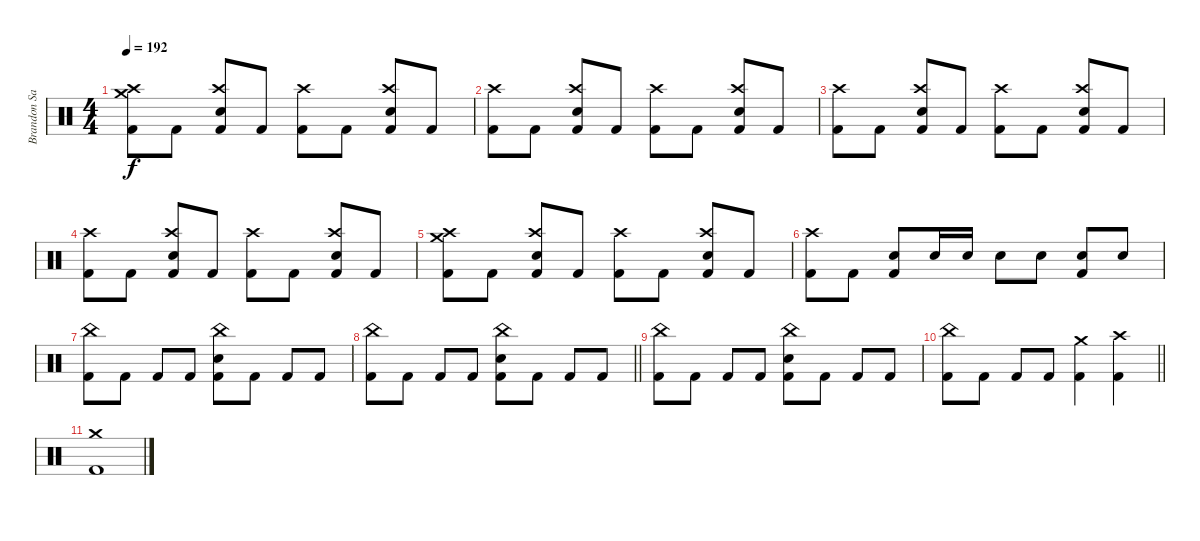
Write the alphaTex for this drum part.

\track ("Brandon Saller" "Brandon Sa") {instrument percussion}
\staff {score}
\articulation defaults
\ts (4 4)
\tempo 192
\clef neutral
\ks aminor
("Kick (hit) 2" "Crash medium (hit)" "Crash high (hit)").8{dy f} "Kick (hit) 2".8 ("Kick (hit) 2" "Snare (hit) 2" "Crash high (hit)").8 "Kick (hit) 2".8 ("Kick (hit) 2" "Crash high (hit)").8 "Kick (hit) 2".8 ("Kick (hit) 2" "Snare (hit) 2" "Crash high (hit)").8 "Kick (hit) 2".8 |
("Kick (hit) 2" "Crash high (hit)").8 "Kick (hit) 2".8 ("Kick (hit) 2" "Snare (hit) 2" "Crash high (hit)").8 "Kick (hit) 2".8 ("Kick (hit) 2" "Crash high (hit)").8 "Kick (hit) 2".8 ("Kick (hit) 2" "Snare (hit) 2" "Crash high (hit)").8 "Kick (hit) 2".8 |
("Kick (hit) 2" "Crash high (hit)").8 "Kick (hit) 2".8 ("Kick (hit) 2" "Snare (hit) 2" "Crash high (hit)").8 "Kick (hit) 2".8 ("Kick (hit) 2" "Crash high (hit)").8 "Kick (hit) 2".8 ("Kick (hit) 2" "Snare (hit) 2" "Crash high (hit)").8 "Kick (hit) 2".8 |
("Kick (hit) 2" "Crash high (hit)").8 "Kick (hit) 2".8 ("Kick (hit) 2" "Snare (hit) 2" "Crash high (hit)").8 "Kick (hit) 2".8 ("Kick (hit) 2" "Crash high (hit)").8 "Kick (hit) 2".8 ("Kick (hit) 2" "Snare (hit) 2" "Crash high (hit)").8 "Kick (hit) 2".8 |
("Kick (hit) 2" "Crash medium (hit)" "Crash high (hit)").8 "Kick (hit) 2".8 ("Kick (hit) 2" "Snare (hit) 2" "Crash high (hit)").8 "Kick (hit) 2".8 ("Kick (hit) 2" "Crash high (hit)").8 "Kick (hit) 2".8 ("Kick (hit) 2" "Snare (hit) 2" "Crash high (hit)").8 "Kick (hit) 2".8 |
("Kick (hit) 2" "Crash high (hit)").8 "Kick (hit) 2".8 ("Kick (hit) 2" "Snare (hit) 2").8 "Snare (hit) 2".16 "Snare (hit) 2".16 "Snare (hit) 2".8 "Snare (hit) 2".8 ("Kick (hit) 2" "Snare (hit) 2").8 "Snare (hit) 2".8 |
("Kick (hit) 2" "China (hit)").8 "Kick (hit) 2".8 "Kick (hit) 2".8 "Kick (hit) 2".8 ("Kick (hit) 2" "Snare (hit) 2" "China (hit)").8 "Kick (hit) 2".8 "Kick (hit) 2".8 "Kick (hit) 2".8 |
\barLineRight lightlight
("Kick (hit) 2" "China (hit)").8 "Kick (hit) 2".8 "Kick (hit) 2".8 "Kick (hit) 2".8 ("Kick (hit) 2" "Snare (hit) 2" "China (hit)").8 "Kick (hit) 2".8 "Kick (hit) 2".8 "Kick (hit) 2".8 |
("Kick (hit) 2" "China (hit)").8 "Kick (hit) 2".8 "Kick (hit) 2".8 "Kick (hit) 2".8 ("Kick (hit) 2" "Snare (hit) 2" "China (hit)").8 "Kick (hit) 2".8 "Kick (hit) 2".8 "Kick (hit) 2".8 |
\barLineRight lightlight
("Kick (hit) 2" "China (hit)").8 "Kick (hit) 2".8 "Kick (hit) 2".8 "Kick (hit) 2".8 ("Kick (hit) 2" "Crash medium (hit)").4 ("Kick (hit) 2" "Crash high (hit)").4 |
("Kick (hit) 2" "Crash medium (hit)").1
